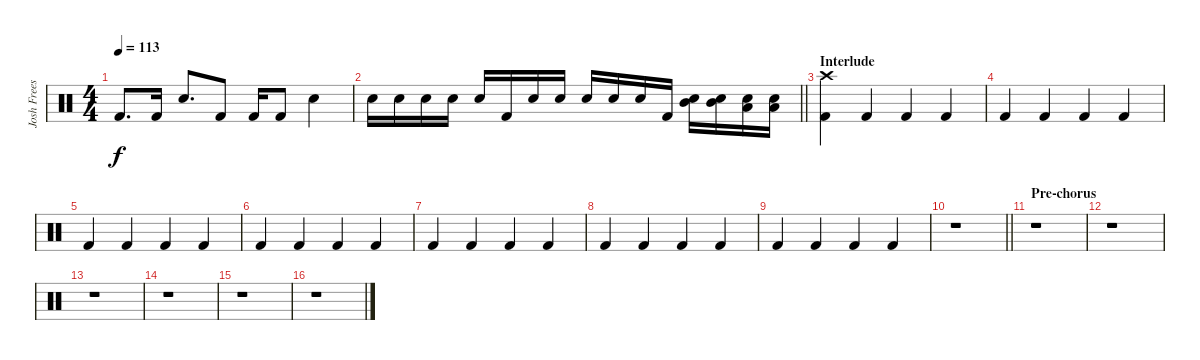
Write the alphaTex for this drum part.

\track ("Josh Freese (Studio Drummer)" "Josh Frees") {instrument percussion}
\staff {score}
\articulation defaults
\ts (4 4)
\tempo 113
\clef neutral
\ks c "Kick (hit) 2".8{d dy f} "Kick (hit) 2".16 "Electric Snare (hit)".8{d} "Kick (hit) 2".8 "Kick (hit) 2".16 "Kick (hit) 2".8 "Electric Snare (hit)".4
|
\barLineRight lightlight "Electric Snare (hit)".16 "Electric Snare (hit)".16 "Electric Snare (hit)".16 "Electric Snare (hit)".16 "Electric Snare (hit)".16 "Kick (hit) 2".16 "Electric Snare (hit)".16 "Electric Snare (hit)".16 "Electric Snare (hit)".16 "Electric Snare (hit)".16 "Electric Snare (hit)".16 "Kick (hit) 2".16
("Electric Snare (hit)" "Mid Tom (hit)").16 ("Electric Snare (hit)" "Mid Tom (hit)").16 ("Electric Snare (hit)" "Low Tom (hit)").16 ("Electric Snare (hit)" "Low Tom (hit)").16 |
\section ("" "Interlude")
("Crash high (hit)" "Kick (hit) 2").4 "Kick (hit) 2".4 "Kick (hit) 2".4 "Kick (hit) 2".4 |
"Kick (hit) 2".4 "Kick (hit) 2".4 "Kick (hit) 2".4 "Kick (hit) 2".4 |
"Kick (hit) 2".4 "Kick (hit) 2".4 "Kick (hit) 2".4 "Kick (hit) 2".4 |
"Kick (hit) 2".4 "Kick (hit) 2".4 "Kick (hit) 2".4 "Kick (hit) 2".4 |
"Kick (hit) 2".4 "Kick (hit) 2".4 "Kick (hit) 2".4 "Kick (hit) 2".4 |
"Kick (hit) 2".4 "Kick (hit) 2".4 "Kick (hit) 2".4 "Kick (hit) 2".4 |
"Kick (hit) 2".4 "Kick (hit) 2".4 "Kick (hit) 2".4 "Kick (hit) 2".4 |
\barLineRight lightlight
r.1 |
\section ("" "Pre-chorus")
r.1 |
r.1 |
r.1 |
r.1 |
r.1 |
r.1
